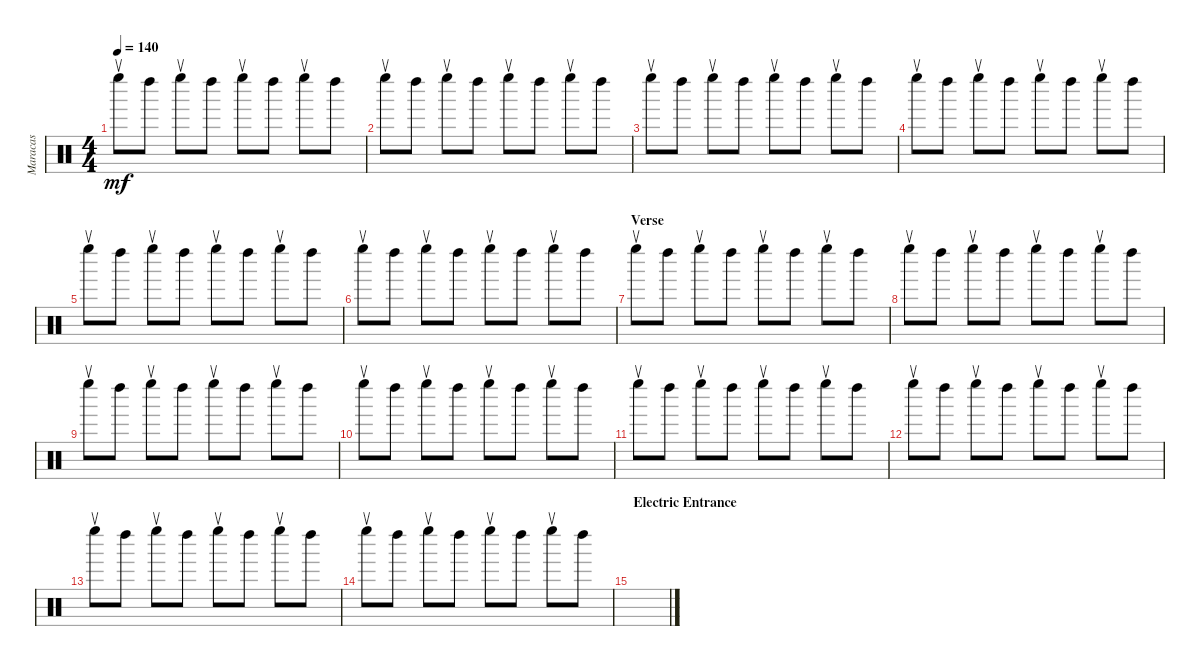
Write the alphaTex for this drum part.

\track ("Maracas" "Maracas") {instrument percussion}
\staff {score}
\articulation defaults
\ts (4 4)
\tempo 140
\clef neutral
\ks c "Left Maraca (return)".8{dy mf} "Left Maraca (hit)".8 "Left Maraca (return)".8 "Left Maraca (hit)".8 "Left Maraca (return)".8 "Left Maraca (hit)".8 "Left Maraca (return)".8 "Left Maraca (hit)".8
|
"Left Maraca (return)".8 "Left Maraca (hit)".8 "Left Maraca (return)".8 "Left Maraca (hit)".8 "Left Maraca (return)".8 "Left Maraca (hit)".8 "Left Maraca (return)".8 "Left Maraca (hit)".8 |
"Left Maraca (return)".8 "Left Maraca (hit)".8 "Left Maraca (return)".8 "Left Maraca (hit)".8 "Left Maraca (return)".8 "Left Maraca (hit)".8 "Left Maraca (return)".8 "Left Maraca (hit)".8 |
"Left Maraca (return)".8 "Left Maraca (hit)".8 "Left Maraca (return)".8 "Left Maraca (hit)".8 "Left Maraca (return)".8 "Left Maraca (hit)".8 "Left Maraca (return)".8 "Left Maraca (hit)".8 |
"Left Maraca (return)".8 "Left Maraca (hit)".8 "Left Maraca (return)".8 "Left Maraca (hit)".8 "Left Maraca (return)".8 "Left Maraca (hit)".8 "Left Maraca (return)".8 "Left Maraca (hit)".8 |
"Left Maraca (return)".8 "Left Maraca (hit)".8 "Left Maraca (return)".8 "Left Maraca (hit)".8 "Left Maraca (return)".8 "Left Maraca (hit)".8 "Left Maraca (return)".8 "Left Maraca (hit)".8 |
\section ("" "Verse")
"Left Maraca (return)".8 "Left Maraca (hit)".8 "Left Maraca (return)".8 "Left Maraca (hit)".8 "Left Maraca (return)".8 "Left Maraca (hit)".8 "Left Maraca (return)".8 "Left Maraca (hit)".8 |
"Left Maraca (return)".8 "Left Maraca (hit)".8 "Left Maraca (return)".8 "Left Maraca (hit)".8 "Left Maraca (return)".8 "Left Maraca (hit)".8 "Left Maraca (return)".8 "Left Maraca (hit)".8 |
"Left Maraca (return)".8 "Left Maraca (hit)".8 "Left Maraca (return)".8 "Left Maraca (hit)".8 "Left Maraca (return)".8 "Left Maraca (hit)".8 "Left Maraca (return)".8 "Left Maraca (hit)".8 |
"Left Maraca (return)".8 "Left Maraca (hit)".8 "Left Maraca (return)".8 "Left Maraca (hit)".8 "Left Maraca (return)".8 "Left Maraca (hit)".8 "Left Maraca (return)".8 "Left Maraca (hit)".8 |
"Left Maraca (return)".8 "Left Maraca (hit)".8 "Left Maraca (return)".8 "Left Maraca (hit)".8 "Left Maraca (return)".8 "Left Maraca (hit)".8 "Left Maraca (return)".8 "Left Maraca (hit)".8 |
"Left Maraca (return)".8 "Left Maraca (hit)".8 "Left Maraca (return)".8 "Left Maraca (hit)".8 "Left Maraca (return)".8 "Left Maraca (hit)".8 "Left Maraca (return)".8 "Left Maraca (hit)".8 |
"Left Maraca (return)".8 "Left Maraca (hit)".8 "Left Maraca (return)".8 "Left Maraca (hit)".8 "Left Maraca (return)".8 "Left Maraca (hit)".8 "Left Maraca (return)".8 "Left Maraca (hit)".8 |
"Left Maraca (return)".8 "Left Maraca (hit)".8 "Left Maraca (return)".8 "Left Maraca (hit)".8 "Left Maraca (return)".8 "Left Maraca (hit)".8 "Left Maraca (return)".8 "Left Maraca (hit)".8 |
\section ("" "Electric Entrance")
